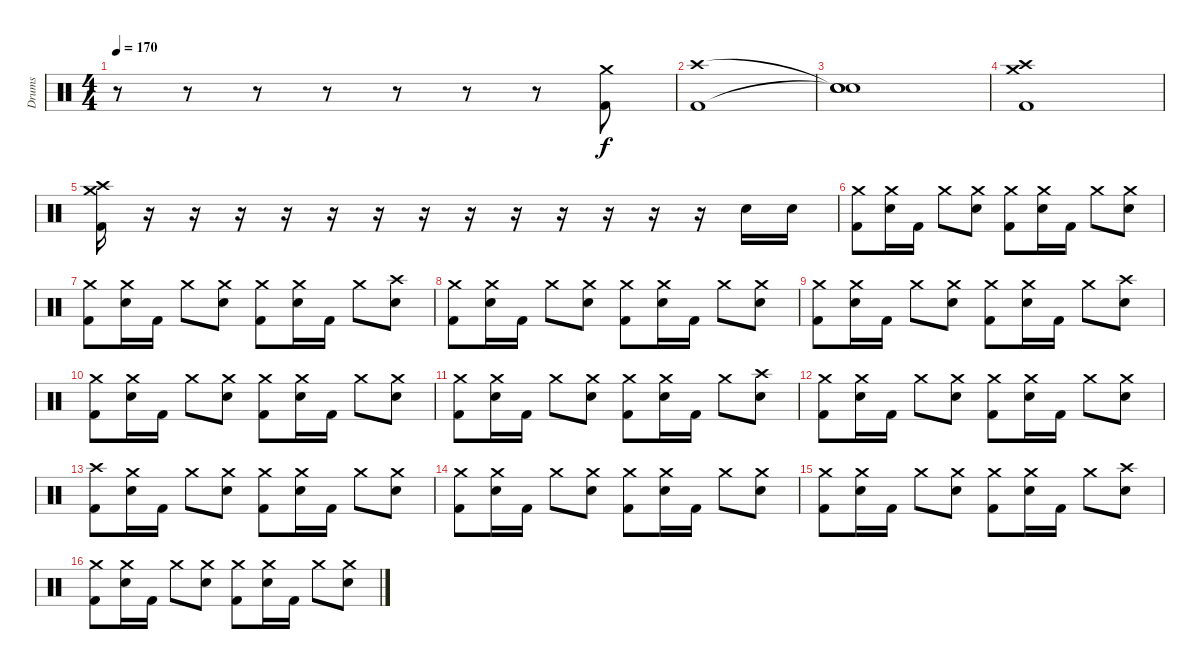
\track ("Drums" "Drums") {instrument percussion}
\staff {score}
\articulation defaults
\ts (4 4)
\tempo 170
\clef neutral
\ks c
r.8{dy f} r.8 r.8 r.8 r.8 r.8 r.8 ("Crash medium (hit)" "Kick (hit) 2").8 |
("Crash high (hit)" "Kick (hit) 2").1 |
("Snare (hit)"{t} "Snare (hit)"{t} "Snare (hit)").1 |
("Crash high (hit)" "Crash medium (hit)" "Kick (hit) 2").1 |
("Crash high (hit)" "Crash medium (hit)" "Kick (hit) 2").16 r.16 r.16 r.16 r.16 r.16 r.16 r.16 r.16 r.16 r.16 r.16 r.16 r.16 "Electric Snare (hit)".16 "Electric Snare (hit)".16 |
("Crash medium (hit)" "Kick (hit) 2").8 ("Crash medium (hit)" "Electric Snare (hit)").16 "Kick (hit) 2".16 "Crash medium (hit)".8 ("Crash medium (hit)" "Electric Snare (hit)").8 ("Crash medium (hit)" "Kick (hit) 2").8 ("Crash medium (hit)" "Electric Snare (hit)").16 "Kick (hit) 2".16 "Crash medium (hit)".8 ("Crash medium (hit)" "Electric Snare (hit)").8 |
("Crash medium (hit)" "Kick (hit) 2").8 ("Crash medium (hit)" "Electric Snare (hit)").16 "Kick (hit) 2".16 "Crash medium (hit)".8 ("Crash medium (hit)" "Electric Snare (hit)").8 ("Crash medium (hit)" "Kick (hit) 2").8 ("Crash medium (hit)" "Electric Snare (hit)").16 "Kick (hit) 2".16 "Crash medium (hit)".8 ("Crash high (hit)" "Electric Snare (hit)").8 |
("Crash medium (hit)" "Kick (hit) 2").8 ("Crash medium (hit)" "Electric Snare (hit)").16 "Kick (hit) 2".16 "Crash medium (hit)".8 ("Crash medium (hit)" "Electric Snare (hit)").8 ("Crash medium (hit)" "Kick (hit) 2").8 ("Crash medium (hit)" "Electric Snare (hit)").16 "Kick (hit) 2".16 "Crash medium (hit)".8 ("Crash medium (hit)" "Electric Snare (hit)").8 |
("Crash medium (hit)" "Kick (hit) 2").8 ("Crash medium (hit)" "Electric Snare (hit)").16 "Kick (hit) 2".16 "Crash medium (hit)".8 ("Crash medium (hit)" "Electric Snare (hit)").8 ("Crash medium (hit)" "Kick (hit) 2").8 ("Crash medium (hit)" "Electric Snare (hit)").16 "Kick (hit) 2".16 "Crash medium (hit)".8 ("Crash high (hit)" "Electric Snare (hit)").8 |
("Crash medium (hit)" "Kick (hit) 2").8 ("Crash medium (hit)" "Electric Snare (hit)").16 "Kick (hit) 2".16 "Crash medium (hit)".8 ("Crash medium (hit)" "Electric Snare (hit)").8 ("Crash medium (hit)" "Kick (hit) 2").8 ("Crash medium (hit)" "Electric Snare (hit)").16 "Kick (hit) 2".16 "Crash medium (hit)".8 ("Crash medium (hit)" "Electric Snare (hit)").8 |
("Crash medium (hit)" "Kick (hit) 2").8 ("Crash medium (hit)" "Electric Snare (hit)").16 "Kick (hit) 2".16 "Crash medium (hit)".8 ("Crash medium (hit)" "Electric Snare (hit)").8 ("Crash medium (hit)" "Kick (hit) 2").8 ("Crash medium (hit)" "Electric Snare (hit)").16 "Kick (hit) 2".16 "Crash medium (hit)".8 ("Crash high (hit)" "Electric Snare (hit)").8 |
("Crash medium (hit)" "Kick (hit) 2").8 ("Crash medium (hit)" "Electric Snare (hit)").16 "Kick (hit) 2".16 "Crash medium (hit)".8 ("Crash medium (hit)" "Electric Snare (hit)").8 ("Crash medium (hit)" "Kick (hit) 2").8 ("Crash medium (hit)" "Electric Snare (hit)").16 "Kick (hit) 2".16 "Crash medium (hit)".8 ("Crash medium (hit)" "Electric Snare (hit)").8 |
("Crash high (hit)" "Kick (hit) 2").8 ("Crash medium (hit)" "Electric Snare (hit)").16 "Kick (hit) 2".16 "Crash medium (hit)".8 ("Crash medium (hit)" "Electric Snare (hit)").8 ("Crash medium (hit)" "Kick (hit) 2").8 ("Crash medium (hit)" "Electric Snare (hit)").16 "Kick (hit) 2".16 "Crash medium (hit)".8 ("Crash medium (hit)" "Electric Snare (hit)").8 |
("Crash medium (hit)" "Kick (hit) 2").8 ("Crash medium (hit)" "Electric Snare (hit)").16 "Kick (hit) 2".16 "Crash medium (hit)".8 ("Crash medium (hit)" "Electric Snare (hit)").8 ("Crash medium (hit)" "Kick (hit) 2").8 ("Crash medium (hit)" "Electric Snare (hit)").16 "Kick (hit) 2".16 "Crash medium (hit)".8 ("Crash medium (hit)" "Electric Snare (hit)").8 |
("Crash medium (hit)" "Kick (hit) 2").8 ("Crash medium (hit)" "Electric Snare (hit)").16 "Kick (hit) 2".16 "Crash medium (hit)".8 ("Crash medium (hit)" "Electric Snare (hit)").8 ("Crash medium (hit)" "Kick (hit) 2").8 ("Crash medium (hit)" "Electric Snare (hit)").16 "Kick (hit) 2".16 "Crash medium (hit)".8 ("Crash high (hit)" "Electric Snare (hit)").8 |
("Crash medium (hit)" "Kick (hit) 2").8 ("Crash medium (hit)" "Electric Snare (hit)").16 "Kick (hit) 2".16 "Crash medium (hit)".8 ("Crash medium (hit)" "Electric Snare (hit)").8 ("Crash medium (hit)" "Kick (hit) 2").8 ("Crash medium (hit)" "Electric Snare (hit)").16 "Kick (hit) 2".16 "Crash medium (hit)".8 ("Crash medium (hit)" "Electric Snare (hit)").8
